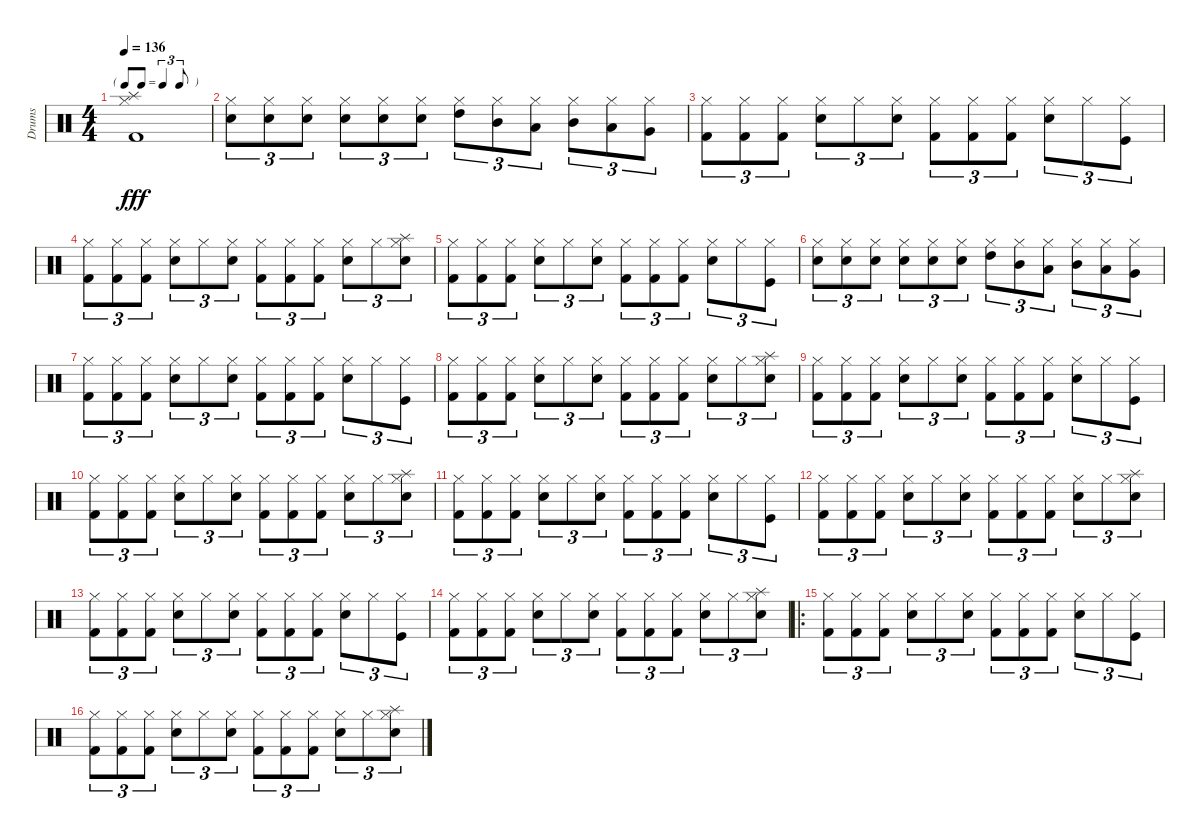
\track ("Drums" "Drums") {instrument percussion}
\staff {score}
\articulation defaults
\ts (4 4)
\tf triplet8th
\tempo 136
\clef neutral
\ks c
("Hi-Hat (closed)" "Kick (hit) 2" "Splash (hit)").1{dy fff} |
("Hi-Hat (closed)" "Snare (hit) 2").8{tu (3 2)} ("Hi-Hat (closed)" "Snare (hit) 2").8{tu (3 2)} ("Hi-Hat (closed)" "Snare (hit) 2").8{tu (3 2)} ("Hi-Hat (closed)" "Snare (hit) 2").8{tu (3 2)} ("Hi-Hat (closed)" "Snare (hit) 2").8{tu (3 2)} ("Hi-Hat (closed)" "Snare (hit) 2").8{tu (3 2)} ("Hi-Hat (closed)" "High Tom (hit)").8{tu (3 2)} ("Hi-Hat (closed)" "Mid Tom (hit)").8{tu (3 2)} ("Hi-Hat (closed)" "Low Tom (hit)").8{tu (3 2)} ("Hi-Hat (closed)" "Mid Tom (hit)").8{tu (3 2)} ("Hi-Hat (closed)" "Low Tom (hit)").8{tu (3 2)} ("Hi-Hat (closed)" "Very Low Tom (hit)").8{tu (3 2)} |
("Hi-Hat (closed)" "Kick (hit) 2").8{tu (3 2)} ("Hi-Hat (closed)" "Kick (hit) 2").8{tu (3 2)} ("Hi-Hat (closed)" "Kick (hit) 2").8{tu (3 2)} ("Hi-Hat (closed)" "Snare (hit) 2").8{tu (3 2)} "Hi-Hat (closed)".8{tu (3 2)} ("Hi-Hat (closed)" "Snare (hit) 2").8{tu (3 2)} ("Hi-Hat (closed)" "Kick (hit) 2").8{tu (3 2)} ("Hi-Hat (closed)" "Kick (hit) 2").8{tu (3 2)} ("Hi-Hat (closed)" "Kick (hit) 2").8{tu (3 2)} ("Hi-Hat (closed)" "Snare (hit) 2").8{tu (3 2)} "Hi-Hat (closed)".8{tu (3 2)} ("Hi-Hat (closed)" "Kick (hit)").8{tu (3 2)} |
("Hi-Hat (closed)" "Kick (hit) 2").8{tu (3 2)} ("Hi-Hat (closed)" "Kick (hit) 2").8{tu (3 2)} ("Hi-Hat (closed)" "Kick (hit) 2").8{tu (3 2)} ("Hi-Hat (closed)" "Snare (hit) 2").8{tu (3 2)} "Hi-Hat (closed)".8{tu (3 2)} ("Hi-Hat (closed)" "Snare (hit) 2").8{tu (3 2)} ("Hi-Hat (closed)" "Kick (hit) 2").8{tu (3 2)} ("Hi-Hat (closed)" "Kick (hit) 2").8{tu (3 2)} ("Hi-Hat (closed)" "Kick (hit) 2").8{tu (3 2)} ("Hi-Hat (closed)" "Snare (hit) 2").8{tu (3 2)} "Hi-Hat (closed)".8{tu (3 2)} ("Hi-Hat (closed)" "Snare (hit) 2" "Splash (hit)").8{tu (3 2)} |
("Hi-Hat (closed)" "Kick (hit) 2").8{tu (3 2)} ("Hi-Hat (closed)" "Kick (hit) 2").8{tu (3 2)} ("Hi-Hat (closed)" "Kick (hit) 2").8{tu (3 2)} ("Hi-Hat (closed)" "Snare (hit) 2").8{tu (3 2)} "Hi-Hat (closed)".8{tu (3 2)} ("Hi-Hat (closed)" "Snare (hit) 2").8{tu (3 2)} ("Hi-Hat (closed)" "Kick (hit) 2").8{tu (3 2)} ("Hi-Hat (closed)" "Kick (hit) 2").8{tu (3 2)} ("Hi-Hat (closed)" "Kick (hit) 2").8{tu (3 2)} ("Hi-Hat (closed)" "Snare (hit) 2").8{tu (3 2)} "Hi-Hat (closed)".8{tu (3 2)} ("Hi-Hat (closed)" "Kick (hit)").8{tu (3 2)} |
("Hi-Hat (closed)" "Snare (hit) 2").8{tu (3 2)} ("Hi-Hat (closed)" "Snare (hit) 2").8{tu (3 2)} ("Hi-Hat (closed)" "Snare (hit) 2").8{tu (3 2)} ("Hi-Hat (closed)" "Snare (hit) 2").8{tu (3 2)} ("Hi-Hat (closed)" "Snare (hit) 2").8{tu (3 2)} ("Hi-Hat (closed)" "Snare (hit) 2").8{tu (3 2)} ("Hi-Hat (closed)" "High Tom (hit)").8{tu (3 2)} ("Hi-Hat (closed)" "Mid Tom (hit)").8{tu (3 2)} ("Hi-Hat (closed)" "Low Tom (hit)").8{tu (3 2)} ("Hi-Hat (closed)" "Mid Tom (hit)").8{tu (3 2)} ("Hi-Hat (closed)" "Low Tom (hit)").8{tu (3 2)} ("Hi-Hat (closed)" "Very Low Tom (hit)").8{tu (3 2)} |
("Hi-Hat (closed)" "Kick (hit) 2").8{tu (3 2)} ("Hi-Hat (closed)" "Kick (hit) 2").8{tu (3 2)} ("Hi-Hat (closed)" "Kick (hit) 2").8{tu (3 2)} ("Hi-Hat (closed)" "Snare (hit) 2").8{tu (3 2)} "Hi-Hat (closed)".8{tu (3 2)} ("Hi-Hat (closed)" "Snare (hit) 2").8{tu (3 2)} ("Hi-Hat (closed)" "Kick (hit) 2").8{tu (3 2)} ("Hi-Hat (closed)" "Kick (hit) 2").8{tu (3 2)} ("Hi-Hat (closed)" "Kick (hit) 2").8{tu (3 2)} ("Hi-Hat (closed)" "Snare (hit) 2").8{tu (3 2)} "Hi-Hat (closed)".8{tu (3 2)} ("Hi-Hat (closed)" "Kick (hit)").8{tu (3 2)} |
("Hi-Hat (closed)" "Kick (hit) 2").8{tu (3 2)} ("Hi-Hat (closed)" "Kick (hit) 2").8{tu (3 2)} ("Hi-Hat (closed)" "Kick (hit) 2").8{tu (3 2)} ("Hi-Hat (closed)" "Snare (hit) 2").8{tu (3 2)} "Hi-Hat (closed)".8{tu (3 2)} ("Hi-Hat (closed)" "Snare (hit) 2").8{tu (3 2)} ("Hi-Hat (closed)" "Kick (hit) 2").8{tu (3 2)} ("Hi-Hat (closed)" "Kick (hit) 2").8{tu (3 2)} ("Hi-Hat (closed)" "Kick (hit) 2").8{tu (3 2)} ("Hi-Hat (closed)" "Snare (hit) 2").8{tu (3 2)} "Hi-Hat (closed)".8{tu (3 2)} ("Hi-Hat (closed)" "Snare (hit) 2" "Splash (hit)").8{tu (3 2)} |
("Hi-Hat (closed)" "Kick (hit) 2").8{tu (3 2)} ("Hi-Hat (closed)" "Kick (hit) 2").8{tu (3 2)} ("Hi-Hat (closed)" "Kick (hit) 2").8{tu (3 2)} ("Hi-Hat (closed)" "Snare (hit) 2").8{tu (3 2)} "Hi-Hat (closed)".8{tu (3 2)} ("Hi-Hat (closed)" "Snare (hit) 2").8{tu (3 2)} ("Hi-Hat (closed)" "Kick (hit) 2").8{tu (3 2)} ("Hi-Hat (closed)" "Kick (hit) 2").8{tu (3 2)} ("Hi-Hat (closed)" "Kick (hit) 2").8{tu (3 2)} ("Hi-Hat (closed)" "Snare (hit) 2").8{tu (3 2)} "Hi-Hat (closed)".8{tu (3 2)} ("Hi-Hat (closed)" "Kick (hit)").8{tu (3 2)} |
("Hi-Hat (closed)" "Kick (hit) 2").8{tu (3 2)} ("Hi-Hat (closed)" "Kick (hit) 2").8{tu (3 2)} ("Hi-Hat (closed)" "Kick (hit) 2").8{tu (3 2)} ("Hi-Hat (closed)" "Snare (hit) 2").8{tu (3 2)} "Hi-Hat (closed)".8{tu (3 2)} ("Hi-Hat (closed)" "Snare (hit) 2").8{tu (3 2)} ("Hi-Hat (closed)" "Kick (hit) 2").8{tu (3 2)} ("Hi-Hat (closed)" "Kick (hit) 2").8{tu (3 2)} ("Hi-Hat (closed)" "Kick (hit) 2").8{tu (3 2)} ("Hi-Hat (closed)" "Snare (hit) 2").8{tu (3 2)} "Hi-Hat (closed)".8{tu (3 2)} ("Hi-Hat (closed)" "Snare (hit) 2" "Splash (hit)").8{tu (3 2)} |
("Hi-Hat (closed)" "Kick (hit) 2").8{tu (3 2)} ("Hi-Hat (closed)" "Kick (hit) 2").8{tu (3 2)} ("Hi-Hat (closed)" "Kick (hit) 2").8{tu (3 2)} ("Hi-Hat (closed)" "Snare (hit) 2").8{tu (3 2)} "Hi-Hat (closed)".8{tu (3 2)} ("Hi-Hat (closed)" "Snare (hit) 2").8{tu (3 2)} ("Hi-Hat (closed)" "Kick (hit) 2").8{tu (3 2)} ("Hi-Hat (closed)" "Kick (hit) 2").8{tu (3 2)} ("Hi-Hat (closed)" "Kick (hit) 2").8{tu (3 2)} ("Hi-Hat (closed)" "Snare (hit) 2").8{tu (3 2)} "Hi-Hat (closed)".8{tu (3 2)} ("Hi-Hat (closed)" "Kick (hit)").8{tu (3 2)} |
("Hi-Hat (closed)" "Kick (hit) 2").8{tu (3 2)} ("Hi-Hat (closed)" "Kick (hit) 2").8{tu (3 2)} ("Hi-Hat (closed)" "Kick (hit) 2").8{tu (3 2)} ("Hi-Hat (closed)" "Snare (hit) 2").8{tu (3 2)} "Hi-Hat (closed)".8{tu (3 2)} ("Hi-Hat (closed)" "Snare (hit) 2").8{tu (3 2)} ("Hi-Hat (closed)" "Kick (hit) 2").8{tu (3 2)} ("Hi-Hat (closed)" "Kick (hit) 2").8{tu (3 2)} ("Hi-Hat (closed)" "Kick (hit) 2").8{tu (3 2)} ("Hi-Hat (closed)" "Snare (hit) 2").8{tu (3 2)} "Hi-Hat (closed)".8{tu (3 2)} ("Hi-Hat (closed)" "Snare (hit) 2" "Splash (hit)").8{tu (3 2)} |
("Hi-Hat (closed)" "Kick (hit) 2").8{tu (3 2)} ("Hi-Hat (closed)" "Kick (hit) 2").8{tu (3 2)} ("Hi-Hat (closed)" "Kick (hit) 2").8{tu (3 2)} ("Hi-Hat (closed)" "Snare (hit) 2").8{tu (3 2)} "Hi-Hat (closed)".8{tu (3 2)} ("Hi-Hat (closed)" "Snare (hit) 2").8{tu (3 2)} ("Hi-Hat (closed)" "Kick (hit) 2").8{tu (3 2)} ("Hi-Hat (closed)" "Kick (hit) 2").8{tu (3 2)} ("Hi-Hat (closed)" "Kick (hit) 2").8{tu (3 2)} ("Hi-Hat (closed)" "Snare (hit) 2").8{tu (3 2)} "Hi-Hat (closed)".8{tu (3 2)} ("Hi-Hat (closed)" "Kick (hit)").8{tu (3 2)} |
("Hi-Hat (closed)" "Kick (hit) 2").8{tu (3 2)} ("Hi-Hat (closed)" "Kick (hit) 2").8{tu (3 2)} ("Hi-Hat (closed)" "Kick (hit) 2").8{tu (3 2)} ("Hi-Hat (closed)" "Snare (hit) 2").8{tu (3 2)} "Hi-Hat (closed)".8{tu (3 2)} ("Hi-Hat (closed)" "Snare (hit) 2").8{tu (3 2)} ("Hi-Hat (closed)" "Kick (hit) 2").8{tu (3 2)} ("Hi-Hat (closed)" "Kick (hit) 2").8{tu (3 2)} ("Hi-Hat (closed)" "Kick (hit) 2").8{tu (3 2)} ("Hi-Hat (closed)" "Snare (hit) 2").8{tu (3 2)} "Hi-Hat (closed)".8{tu (3 2)} ("Hi-Hat (closed)" "Snare (hit) 2" "Splash (hit)").8{tu (3 2)} |
\ro
("Hi-Hat (closed)" "Kick (hit) 2").8{tu (3 2)} ("Hi-Hat (closed)" "Kick (hit) 2").8{tu (3 2)} ("Hi-Hat (closed)" "Kick (hit) 2").8{tu (3 2)} ("Hi-Hat (closed)" "Snare (hit) 2").8{tu (3 2)} "Hi-Hat (closed)".8{tu (3 2)} ("Hi-Hat (closed)" "Snare (hit) 2").8{tu (3 2)} ("Hi-Hat (closed)" "Kick (hit) 2").8{tu (3 2)} ("Hi-Hat (closed)" "Kick (hit) 2").8{tu (3 2)} ("Hi-Hat (closed)" "Kick (hit) 2").8{tu (3 2)} ("Hi-Hat (closed)" "Snare (hit) 2").8{tu (3 2)} "Hi-Hat (closed)".8{tu (3 2)} ("Hi-Hat (closed)" "Kick (hit)").8{tu (3 2)} |
("Hi-Hat (closed)" "Kick (hit) 2").8{tu (3 2)} ("Hi-Hat (closed)" "Kick (hit) 2").8{tu (3 2)} ("Hi-Hat (closed)" "Kick (hit) 2").8{tu (3 2)} ("Hi-Hat (closed)" "Snare (hit) 2").8{tu (3 2)} "Hi-Hat (closed)".8{tu (3 2)} ("Hi-Hat (closed)" "Snare (hit) 2").8{tu (3 2)} ("Hi-Hat (closed)" "Kick (hit) 2").8{tu (3 2)} ("Hi-Hat (closed)" "Kick (hit) 2").8{tu (3 2)} ("Hi-Hat (closed)" "Kick (hit) 2").8{tu (3 2)} ("Hi-Hat (closed)" "Snare (hit) 2").8{tu (3 2)} "Hi-Hat (closed)".8{tu (3 2)} ("Hi-Hat (closed)" "Snare (hit) 2" "Splash (hit)").8{tu (3 2)}
